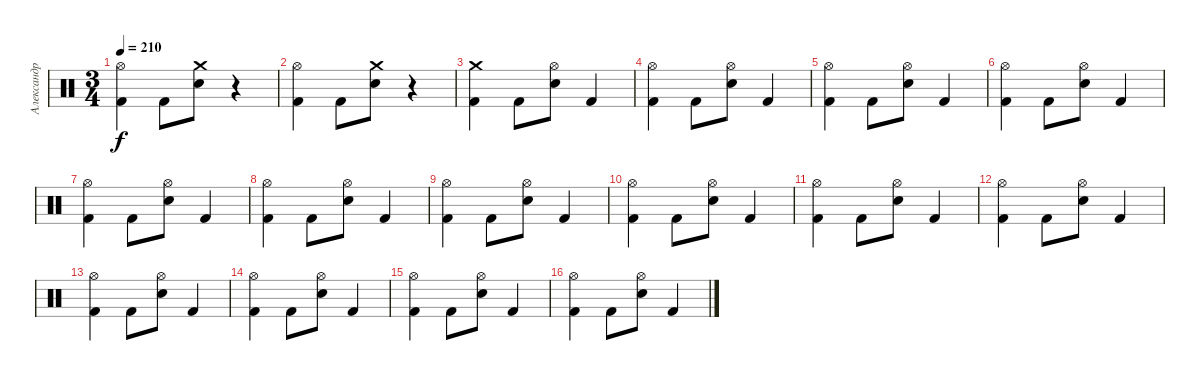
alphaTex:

\track ("Александр Манякин" "Александр ") {instrument percussion}
\staff {score}
\articulation defaults
\ts (3 4)
\tempo 210
\clef neutral
\ks c
("Hi-Hat (open)" "Kick (hit) 2").4{dy f} "Kick (hit) 2".8 ("Crash medium (hit)" "Snare (hit) 2").8 r.4 |
("Hi-Hat (open)" "Kick (hit) 2").4 "Kick (hit) 2".8 ("Crash medium (hit)" "Snare (hit) 2").8 r.4 |
("Crash medium (hit)" "Kick (hit) 2").4 "Kick (hit) 2".8 ("Hi-Hat (open)" "Snare (hit) 2").8 "Kick (hit) 2".4 |
("Hi-Hat (open)" "Kick (hit) 2").4 "Kick (hit) 2".8 ("Hi-Hat (open)" "Snare (hit) 2").8 "Kick (hit) 2".4 |
("Hi-Hat (open)" "Kick (hit) 2").4 "Kick (hit) 2".8 ("Hi-Hat (open)" "Snare (hit) 2").8 "Kick (hit) 2".4 |
("Hi-Hat (open)" "Kick (hit) 2").4 "Kick (hit) 2".8 ("Hi-Hat (open)" "Snare (hit) 2").8 "Kick (hit) 2".4 |
("Hi-Hat (open)" "Kick (hit) 2").4 "Kick (hit) 2".8 ("Hi-Hat (open)" "Snare (hit) 2").8 "Kick (hit) 2".4 |
("Hi-Hat (open)" "Kick (hit) 2").4 "Kick (hit) 2".8 ("Hi-Hat (open)" "Snare (hit) 2").8 "Kick (hit) 2".4 |
("Hi-Hat (open)" "Kick (hit) 2").4 "Kick (hit) 2".8 ("Hi-Hat (open)" "Snare (hit) 2").8 "Kick (hit) 2".4 |
("Hi-Hat (open)" "Kick (hit) 2").4 "Kick (hit) 2".8 ("Hi-Hat (open)" "Snare (hit) 2").8 "Kick (hit) 2".4 |
("Hi-Hat (open)" "Kick (hit) 2").4 "Kick (hit) 2".8 ("Hi-Hat (open)" "Snare (hit) 2").8 "Kick (hit) 2".4 |
("Hi-Hat (open)" "Kick (hit) 2").4 "Kick (hit) 2".8 ("Hi-Hat (open)" "Snare (hit) 2").8 "Kick (hit) 2".4 |
("Hi-Hat (open)" "Kick (hit) 2").4 "Kick (hit) 2".8 ("Hi-Hat (open)" "Snare (hit) 2").8 "Kick (hit) 2".4 |
("Hi-Hat (open)" "Kick (hit) 2").4 "Kick (hit) 2".8 ("Hi-Hat (open)" "Snare (hit) 2").8 "Kick (hit) 2".4 |
("Hi-Hat (open)" "Kick (hit) 2").4 "Kick (hit) 2".8 ("Hi-Hat (open)" "Snare (hit) 2").8 "Kick (hit) 2".4 |
("Hi-Hat (open)" "Kick (hit) 2").4 "Kick (hit) 2".8 ("Hi-Hat (open)" "Snare (hit) 2").8 "Kick (hit) 2".4
